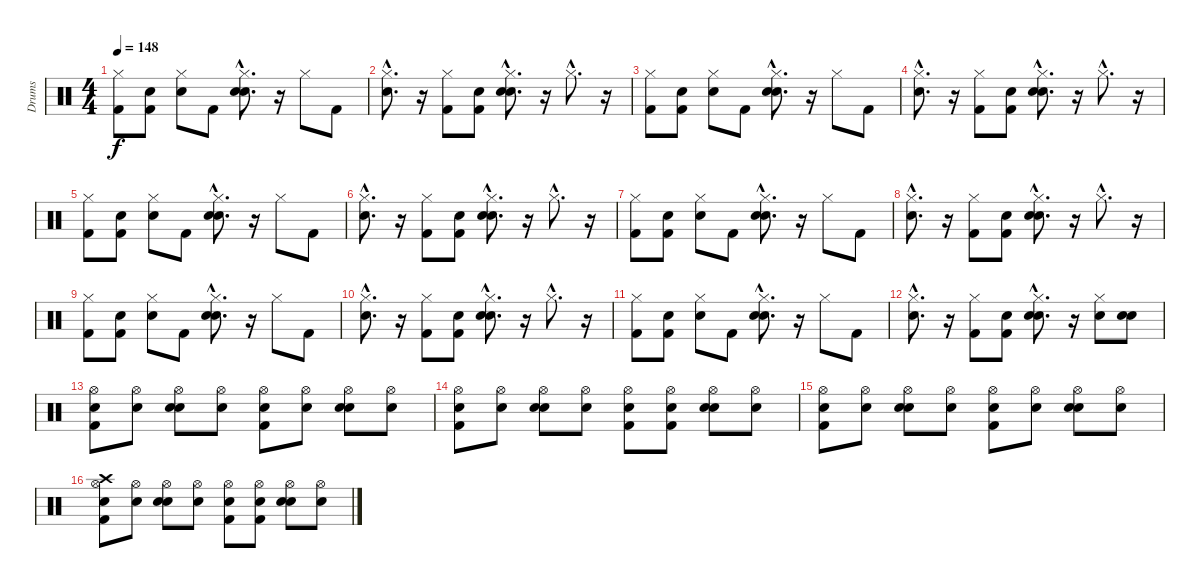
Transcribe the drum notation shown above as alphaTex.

\track ("Drums" "Drums") {instrument percussion}
\staff {score}
\articulation defaults
\ts (4 4)
\tempo 148
\clef neutral
\ks c
("Kick (hit) 2" "Hi-Hat (closed)").8{dy f} ("Snare (hit)" "Kick (hit) 2").8 ("Snare (hit)" "Hi-Hat (closed)").8 "Kick (hit) 2".8 ("Snare (hit)"{hac} "Snare (hit) 2"{hac} "Hi-Hat (closed)"{hac}).8{d} r.16 "Hi-Hat (closed)".8 "Kick (hit) 2".8 |
("Snare (hit)"{hac} "Hi-Hat (closed)"{hac}).8{d} r.16 ("Kick (hit) 2" "Hi-Hat (closed)").8 ("Snare (hit)" "Kick (hit) 2").8 ("Snare (hit)"{hac} "Snare (hit) 2"{hac} "Hi-Hat (closed)"{hac}).8{d} r.16 "Hi-Hat (closed)"{hac}.8{d} r.16 |
("Kick (hit) 2" "Hi-Hat (closed)").8 ("Snare (hit)" "Kick (hit) 2").8 ("Snare (hit)" "Hi-Hat (closed)").8 "Kick (hit) 2".8 ("Snare (hit)"{hac} "Snare (hit) 2"{hac} "Hi-Hat (closed)"{hac}).8{d} r.16 "Hi-Hat (closed)".8 "Kick (hit) 2".8 |
("Snare (hit)"{hac} "Hi-Hat (closed)"{hac}).8{d} r.16 ("Kick (hit) 2" "Hi-Hat (closed)").8 ("Snare (hit)" "Kick (hit) 2").8 ("Snare (hit)"{hac} "Snare (hit) 2"{hac} "Hi-Hat (closed)"{hac}).8{d} r.16 "Hi-Hat (closed)"{hac}.8{d} r.16 |
("Kick (hit) 2" "Hi-Hat (closed)").8 ("Snare (hit)" "Kick (hit) 2").8 ("Snare (hit)" "Hi-Hat (closed)").8 "Kick (hit) 2".8 ("Snare (hit)"{hac} "Snare (hit) 2"{hac} "Hi-Hat (closed)"{hac}).8{d} r.16 "Hi-Hat (closed)".8 "Kick (hit) 2".8 |
("Snare (hit)"{hac} "Hi-Hat (closed)"{hac}).8{d} r.16 ("Kick (hit) 2" "Hi-Hat (closed)").8 ("Snare (hit)" "Kick (hit) 2").8 ("Snare (hit)"{hac} "Snare (hit) 2"{hac} "Hi-Hat (closed)"{hac}).8{d} r.16 "Hi-Hat (closed)"{hac}.8{d} r.16 |
("Kick (hit) 2" "Hi-Hat (closed)").8 ("Snare (hit)" "Kick (hit) 2").8 ("Snare (hit)" "Hi-Hat (closed)").8 "Kick (hit) 2".8 ("Snare (hit)"{hac} "Snare (hit) 2"{hac} "Hi-Hat (closed)"{hac}).8{d} r.16 "Hi-Hat (closed)".8 "Kick (hit) 2".8 |
("Snare (hit)"{hac} "Hi-Hat (closed)"{hac}).8{d} r.16 ("Kick (hit) 2" "Hi-Hat (closed)").8 ("Snare (hit)" "Kick (hit) 2").8 ("Snare (hit)"{hac} "Snare (hit) 2"{hac} "Hi-Hat (closed)"{hac}).8{d} r.16 "Hi-Hat (closed)"{hac}.8{d} r.16 |
("Kick (hit) 2" "Hi-Hat (closed)").8 ("Snare (hit)" "Kick (hit) 2").8 ("Snare (hit)" "Hi-Hat (closed)").8 "Kick (hit) 2".8 ("Snare (hit)"{hac} "Snare (hit) 2"{hac} "Hi-Hat (closed)"{hac}).8{d} r.16 "Hi-Hat (closed)".8 "Kick (hit) 2".8 |
("Snare (hit)"{hac} "Hi-Hat (closed)"{hac}).8{d} r.16 ("Kick (hit) 2" "Hi-Hat (closed)").8 ("Snare (hit)" "Kick (hit) 2").8 ("Snare (hit)"{hac} "Snare (hit) 2"{hac} "Hi-Hat (closed)"{hac}).8{d} r.16 "Hi-Hat (closed)"{hac}.8{d} r.16 |
("Kick (hit) 2" "Hi-Hat (closed)").8 ("Snare (hit)" "Kick (hit) 2").8 ("Snare (hit)" "Hi-Hat (closed)").8 "Kick (hit) 2".8 ("Snare (hit)"{hac} "Snare (hit) 2"{hac} "Hi-Hat (closed)"{hac}).8{d} r.16 "Hi-Hat (closed)".8 "Kick (hit) 2".8 |
("Snare (hit)"{hac} "Hi-Hat (closed)"{hac}).8{d} r.16 ("Kick (hit) 2" "Hi-Hat (closed)").8 ("Snare (hit)" "Kick (hit) 2").8 ("Snare (hit)"{hac} "Snare (hit) 2"{hac} "Hi-Hat (closed)"{hac}).8{d} r.16 ("Snare (hit) 2" "Hi-Hat (closed)").8 ("Snare (hit)" "Snare (hit) 2").8 |
("Snare (hit)" "Kick (hit) 2" "Hi-Hat (open)").8 ("Snare (hit)" "Hi-Hat (open)").8 ("Snare (hit)" "Snare (hit) 2" "Hi-Hat (open)").8 ("Snare (hit)" "Hi-Hat (open)").8 ("Snare (hit)" "Kick (hit) 2" "Hi-Hat (open)").8 ("Snare (hit)" "Hi-Hat (open)").8 ("Snare (hit)" "Snare (hit) 2" "Hi-Hat (open)").8 ("Snare (hit)" "Hi-Hat (open)").8 |
("Snare (hit)" "Kick (hit) 2" "Hi-Hat (open)").8 ("Snare (hit)" "Hi-Hat (open)").8 ("Snare (hit)" "Snare (hit) 2" "Hi-Hat (open)").8 ("Snare (hit)" "Hi-Hat (open)").8 ("Snare (hit)" "Kick (hit) 2" "Hi-Hat (open)").8 ("Snare (hit)" "Kick (hit) 2" "Hi-Hat (open)").8 ("Snare (hit)" "Snare (hit) 2" "Hi-Hat (open)").8 ("Snare (hit)" "Hi-Hat (open)").8 |
("Snare (hit)" "Kick (hit) 2" "Hi-Hat (open)").8 ("Snare (hit)" "Hi-Hat (open)").8 ("Snare (hit)" "Snare (hit) 2" "Hi-Hat (open)").8 ("Snare (hit)" "Hi-Hat (open)").8 ("Snare (hit)" "Kick (hit) 2" "Hi-Hat (open)").8 ("Snare (hit)" "Hi-Hat (open)").8 ("Snare (hit)" "Snare (hit) 2" "Hi-Hat (open)").8 ("Snare (hit)" "Hi-Hat (open)").8 |
("Snare (hit)" "Kick (hit) 2" "Hi-Hat (open)" "Crash high (hit)").8 ("Snare (hit)" "Hi-Hat (open)").8 ("Snare (hit)" "Snare (hit) 2" "Hi-Hat (open)").8 ("Snare (hit)" "Hi-Hat (open)").8 ("Snare (hit)" "Kick (hit) 2" "Hi-Hat (open)").8 ("Snare (hit)" "Kick (hit) 2" "Hi-Hat (open)").8 ("Snare (hit)" "Snare (hit) 2" "Hi-Hat (open)").8 ("Snare (hit)" "Hi-Hat (open)").8
